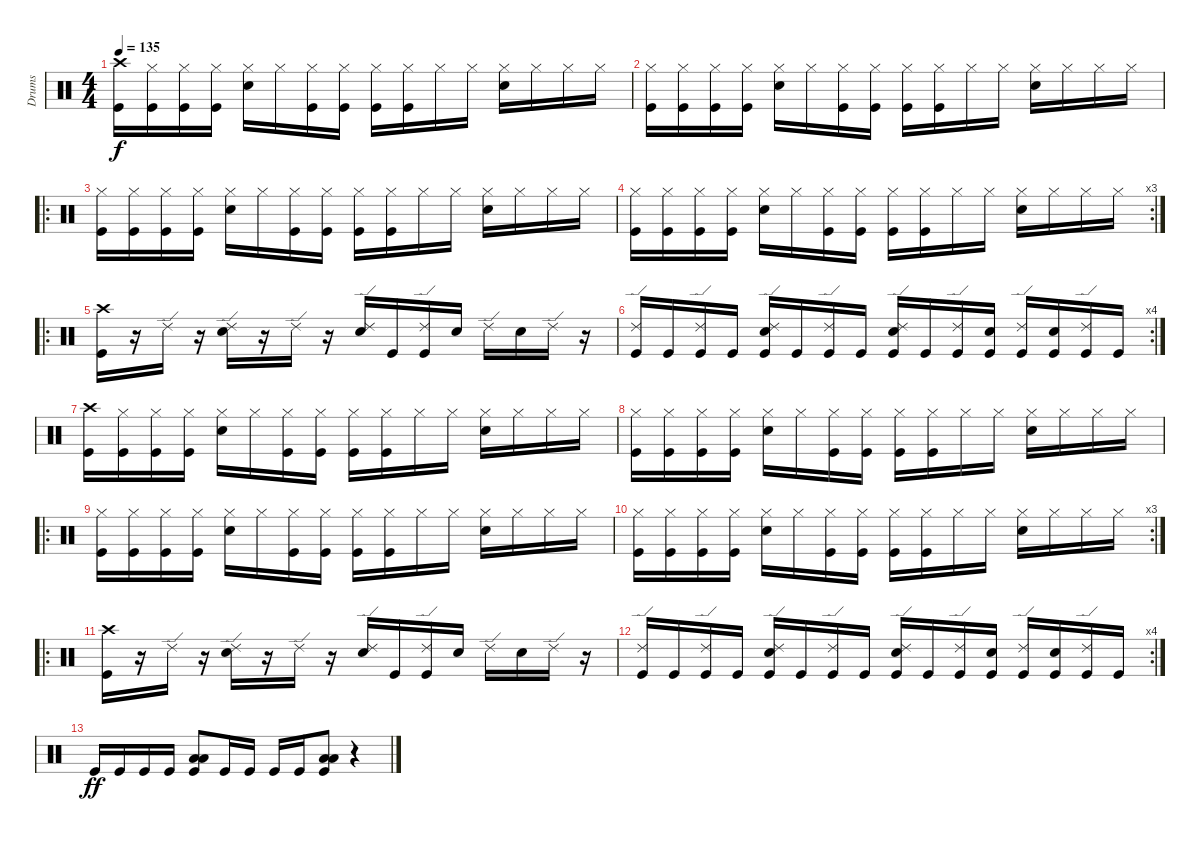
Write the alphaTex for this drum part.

\track ("Drums" "Drums") {instrument percussion}
\staff {score}
\articulation defaults
\ts (4 4)
\tempo 135
\clef neutral
\ks c
("Crash high (hit)" "Kick (hit)").16{dy f} ("Hi-Hat (closed)" "Kick (hit)").16 ("Hi-Hat (closed)" "Kick (hit)").16 ("Hi-Hat (closed)" "Kick (hit)").16 ("Hi-Hat (closed)" "Snare (hit) 2").16 "Hi-Hat (closed)".16 ("Hi-Hat (closed)" "Kick (hit)").16 ("Hi-Hat (closed)" "Kick (hit)").16 ("Hi-Hat (closed)" "Kick (hit)").16 ("Hi-Hat (closed)" "Kick (hit)").16 "Hi-Hat (closed)".16 "Hi-Hat (closed)".16 ("Hi-Hat (closed)" "Snare (hit) 2").16 "Hi-Hat (closed)".16 "Hi-Hat (closed)".16 "Hi-Hat (closed)".16 |
("Hi-Hat (closed)" "Kick (hit)").16 ("Hi-Hat (closed)" "Kick (hit)").16 ("Hi-Hat (closed)" "Kick (hit)").16 ("Hi-Hat (closed)" "Kick (hit)").16 ("Hi-Hat (closed)" "Snare (hit) 2").16 "Hi-Hat (closed)".16 ("Hi-Hat (closed)" "Kick (hit)").16 ("Hi-Hat (closed)" "Kick (hit)").16 ("Hi-Hat (closed)" "Kick (hit)").16 ("Hi-Hat (closed)" "Kick (hit)").16 "Hi-Hat (closed)".16 "Hi-Hat (closed)".16 ("Hi-Hat (closed)" "Snare (hit) 2").16 "Hi-Hat (closed)".16 "Hi-Hat (closed)".16 "Hi-Hat (closed)".16 |
\ro
("Hi-Hat (closed)" "Kick (hit)").16 ("Hi-Hat (closed)" "Kick (hit)").16 ("Hi-Hat (closed)" "Kick (hit)").16 ("Hi-Hat (closed)" "Kick (hit)").16 ("Hi-Hat (closed)" "Snare (hit) 2").16 "Hi-Hat (closed)".16 ("Hi-Hat (closed)" "Kick (hit)").16 ("Hi-Hat (closed)" "Kick (hit)").16 ("Hi-Hat (closed)" "Kick (hit)").16 ("Hi-Hat (closed)" "Kick (hit)").16 "Hi-Hat (closed)".16 "Hi-Hat (closed)".16 ("Hi-Hat (closed)" "Snare (hit) 2").16 "Hi-Hat (closed)".16 "Hi-Hat (closed)".16 "Hi-Hat (closed)".16 |
\rc 3
("Hi-Hat (closed)" "Kick (hit)").16 ("Hi-Hat (closed)" "Kick (hit)").16 ("Hi-Hat (closed)" "Kick (hit)").16 ("Hi-Hat (closed)" "Kick (hit)").16 ("Hi-Hat (closed)" "Snare (hit) 2").16 "Hi-Hat (closed)".16 ("Hi-Hat (closed)" "Kick (hit)").16 ("Hi-Hat (closed)" "Kick (hit)").16 ("Hi-Hat (closed)" "Kick (hit)").16 ("Hi-Hat (closed)" "Kick (hit)").16 "Hi-Hat (closed)".16 "Hi-Hat (closed)".16 ("Hi-Hat (closed)" "Snare (hit) 2").16 "Hi-Hat (closed)".16 "Hi-Hat (closed)".16 "Hi-Hat (closed)".16 |
\ro
("Crash high (hit)" "Kick (hit)").16 r.16 "Ride (edge) 2".16 r.16 ("Ride (edge) 2" "Snare (hit) 2").16 r.16 "Ride (edge) 2".16 r.16 ("Ride (edge) 2" "Snare (hit) 2").16 "Kick (hit)".16 ("Ride (edge) 2" "Kick (hit)").16 "Snare (hit) 2".16 "Ride (edge) 2".16 "Snare (hit) 2".16 "Ride (edge) 2".16 r.16 |
\rc 4
("Ride (edge) 2" "Kick (hit)").16 "Kick (hit)".16 ("Ride (edge) 2" "Kick (hit)").16 "Kick (hit)".16 ("Ride (edge) 2" "Snare (hit) 2" "Kick (hit)").16 "Kick (hit)".16 ("Ride (edge) 2" "Kick (hit)").16 "Kick (hit)".16 ("Ride (edge) 2" "Snare (hit) 2" "Kick (hit)").16 "Kick (hit)".16 ("Ride (edge) 2" "Kick (hit)").16 ("Snare (hit) 2" "Kick (hit)").16 ("Ride (edge) 2" "Kick (hit)").16 ("Snare (hit) 2" "Kick (hit)").16 ("Ride (edge) 2" "Kick (hit)").16 "Kick (hit)".16 |
("Crash high (hit)" "Kick (hit)").16 ("Hi-Hat (closed)" "Kick (hit)").16 ("Hi-Hat (closed)" "Kick (hit)").16 ("Hi-Hat (closed)" "Kick (hit)").16 ("Hi-Hat (closed)" "Snare (hit) 2").16 "Hi-Hat (closed)".16 ("Hi-Hat (closed)" "Kick (hit)").16 ("Hi-Hat (closed)" "Kick (hit)").16 ("Hi-Hat (closed)" "Kick (hit)").16 ("Hi-Hat (closed)" "Kick (hit)").16 "Hi-Hat (closed)".16 "Hi-Hat (closed)".16 ("Hi-Hat (closed)" "Snare (hit) 2").16 "Hi-Hat (closed)".16 "Hi-Hat (closed)".16 "Hi-Hat (closed)".16 |
("Hi-Hat (closed)" "Kick (hit)").16 ("Hi-Hat (closed)" "Kick (hit)").16 ("Hi-Hat (closed)" "Kick (hit)").16 ("Hi-Hat (closed)" "Kick (hit)").16 ("Hi-Hat (closed)" "Snare (hit) 2").16 "Hi-Hat (closed)".16 ("Hi-Hat (closed)" "Kick (hit)").16 ("Hi-Hat (closed)" "Kick (hit)").16 ("Hi-Hat (closed)" "Kick (hit)").16 ("Hi-Hat (closed)" "Kick (hit)").16 "Hi-Hat (closed)".16 "Hi-Hat (closed)".16 ("Hi-Hat (closed)" "Snare (hit) 2").16 "Hi-Hat (closed)".16 "Hi-Hat (closed)".16 "Hi-Hat (closed)".16 |
\ro
("Hi-Hat (closed)" "Kick (hit)").16 ("Hi-Hat (closed)" "Kick (hit)").16 ("Hi-Hat (closed)" "Kick (hit)").16 ("Hi-Hat (closed)" "Kick (hit)").16 ("Hi-Hat (closed)" "Snare (hit) 2").16 "Hi-Hat (closed)".16 ("Hi-Hat (closed)" "Kick (hit)").16 ("Hi-Hat (closed)" "Kick (hit)").16 ("Hi-Hat (closed)" "Kick (hit)").16 ("Hi-Hat (closed)" "Kick (hit)").16 "Hi-Hat (closed)".16 "Hi-Hat (closed)".16 ("Hi-Hat (closed)" "Snare (hit) 2").16 "Hi-Hat (closed)".16 "Hi-Hat (closed)".16 "Hi-Hat (closed)".16 |
\rc 3
("Hi-Hat (closed)" "Kick (hit)").16 ("Hi-Hat (closed)" "Kick (hit)").16 ("Hi-Hat (closed)" "Kick (hit)").16 ("Hi-Hat (closed)" "Kick (hit)").16 ("Hi-Hat (closed)" "Snare (hit) 2").16 "Hi-Hat (closed)".16 ("Hi-Hat (closed)" "Kick (hit)").16 ("Hi-Hat (closed)" "Kick (hit)").16 ("Hi-Hat (closed)" "Kick (hit)").16 ("Hi-Hat (closed)" "Kick (hit)").16 "Hi-Hat (closed)".16 "Hi-Hat (closed)".16 ("Hi-Hat (closed)" "Snare (hit) 2").16 "Hi-Hat (closed)".16 "Hi-Hat (closed)".16 "Hi-Hat (closed)".16 |
\ro
("Crash high (hit)" "Kick (hit)").16 r.16 "Ride (edge) 2".16 r.16 ("Ride (edge) 2" "Snare (hit) 2").16 r.16 "Ride (edge) 2".16 r.16 ("Ride (edge) 2" "Snare (hit) 2").16 "Kick (hit)".16 ("Ride (edge) 2" "Kick (hit)").16 "Snare (hit) 2".16 "Ride (edge) 2".16 "Snare (hit) 2".16 "Ride (edge) 2".16 r.16 |
\rc 4
("Ride (edge) 2" "Kick (hit)").16 "Kick (hit)".16 ("Ride (edge) 2" "Kick (hit)").16 "Kick (hit)".16 ("Ride (edge) 2" "Snare (hit) 2" "Kick (hit)").16 "Kick (hit)".16 ("Ride (edge) 2" "Kick (hit)").16 "Kick (hit)".16 ("Ride (edge) 2" "Snare (hit) 2" "Kick (hit)").16 "Kick (hit)".16 ("Ride (edge) 2" "Kick (hit)").16 ("Snare (hit) 2" "Kick (hit)").16 ("Ride (edge) 2" "Kick (hit)").16 ("Snare (hit) 2" "Kick (hit)").16 ("Ride (edge) 2" "Kick (hit)").16 "Kick (hit)".16 |
"Kick (hit)".16{dy ff} "Kick (hit)".16 "Kick (hit)".16 "Kick (hit)".16 ("Low Floor Tom (hit)" "Low Tom (hit)" "Kick (hit)").8 "Kick (hit)".16 "Kick (hit)".16 "Kick (hit)".16 "Kick (hit)".16 ("Low Floor Tom (hit)" "Low Tom (hit)" "Kick (hit)").8 r.4
